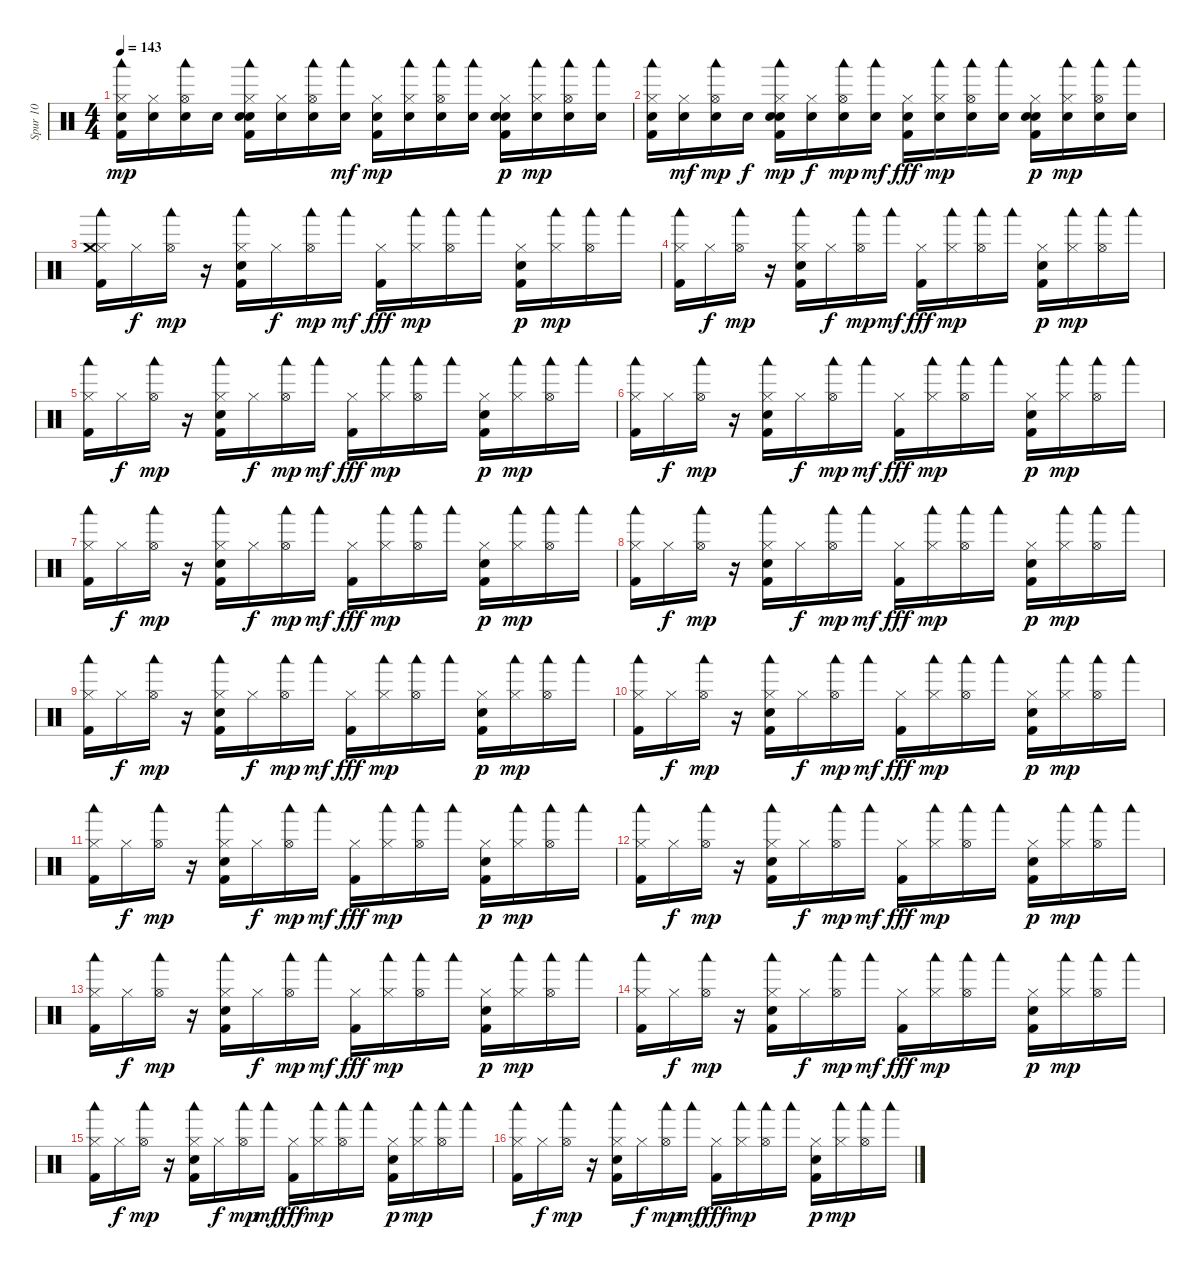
\track ("Spur 10" "Spur 10") {instrument percussion}
\staff {score}
\articulation defaults
\ts (4 4)
\tempo 143
\clef neutral
\ks c
("Kick (hit) 2" "Hi-Hat (closed)" "Snare (hit) 2" "Woodblock low (hit)").16{dy mp} ("Hi-Hat (closed)" "Snare (hit) 2").16 ("Hi-Hat (open)" "Snare (hit) 2" "Woodblock low (hit)").16 "Snare (hit) 2".16 ("Kick (hit) 2" "Hi-Hat (closed)" "Snare (hit) 2" "Electric Snare (hit)" "Woodblock low (hit)").16 ("Hi-Hat (closed)" "Snare (hit) 2").16 ("Hi-Hat (open)" "Snare (hit) 2" "Woodblock low (hit)").16 ("Snare (hit) 2" "Woodblock low (hit)").16{dy mf} ("Kick (hit) 2" "Hi-Hat (closed)" "Snare (hit) 2").16{dy mp} ("Hi-Hat (closed)" "Snare (hit) 2" "Woodblock low (hit)").16 ("Hi-Hat (open)" "Snare (hit) 2" "Woodblock low (hit)").16 ("Snare (hit) 2" "Woodblock low (hit)").16 ("Kick (hit) 2" "Hi-Hat (closed)" "Snare (hit) 2" "Electric Snare (hit)").16{dy p} ("Hi-Hat (closed)" "Snare (hit) 2" "Woodblock low (hit)").16{dy mp} ("Hi-Hat (open)" "Snare (hit) 2" "Woodblock low (hit)").16 ("Snare (hit) 2" "Woodblock low (hit)").16 |
("Snare (hit) 2" "Hi-Hat (closed)" "Kick (hit) 2" "Woodblock low (hit)").16 ("Snare (hit) 2" "Hi-Hat (closed)").16{dy mf} ("Snare (hit) 2" "Hi-Hat (open)" "Woodblock low (hit)").16{dy mp} "Snare (hit) 2".16{dy f} ("Snare (hit) 2" "Hi-Hat (closed)" "Kick (hit) 2" "Electric Snare (hit)" "Woodblock low (hit)").16{dy mp} ("Snare (hit) 2" "Hi-Hat (closed)").16{dy f} ("Snare (hit) 2" "Hi-Hat (open)" "Woodblock low (hit)").16{dy mp} ("Snare (hit) 2" "Woodblock low (hit)").16{dy mf} ("Snare (hit) 2" "Hi-Hat (closed)" "Kick (hit) 2").16{dy fff} ("Snare (hit) 2" "Hi-Hat (closed)" "Woodblock low (hit)").16{dy mp} ("Snare (hit) 2" "Hi-Hat (open)" "Woodblock low (hit)").16 ("Snare (hit) 2" "Woodblock low (hit)").16 ("Snare (hit) 2" "Hi-Hat (closed)" "Kick (hit) 2" "Electric Snare (hit)").16{dy p} ("Snare (hit) 2" "Hi-Hat (closed)" "Woodblock low (hit)").16{dy mp} ("Snare (hit) 2" "Hi-Hat (open)" "Woodblock low (hit)").16 ("Snare (hit) 2" "Woodblock low (hit)").16 |
("Hi-Hat (closed)" "Kick (hit) 2" "Crash medium (hit)" "Woodblock low (hit)").16 "Hi-Hat (closed)".16{dy f} ("Hi-Hat (open)" "Woodblock low (hit)").16{dy mp} r.16 ("Hi-Hat (closed)" "Kick (hit) 2" "Electric Snare (hit)" "Woodblock low (hit)").16 "Hi-Hat (closed)".16{dy f} ("Hi-Hat (open)" "Woodblock low (hit)").16{dy mp} "Woodblock low (hit)".16{dy mf} ("Hi-Hat (closed)" "Kick (hit) 2").16{dy fff} ("Hi-Hat (closed)" "Woodblock low (hit)").16{dy mp} ("Hi-Hat (open)" "Woodblock low (hit)").16 "Woodblock low (hit)".16 ("Hi-Hat (closed)" "Kick (hit) 2" "Electric Snare (hit)").16{dy p} ("Hi-Hat (closed)" "Woodblock low (hit)").16{dy mp} ("Hi-Hat (open)" "Woodblock low (hit)").16 "Woodblock low (hit)".16 |
("Kick (hit) 2" "Hi-Hat (closed)" "Woodblock low (hit)").16 "Hi-Hat (closed)".16{dy f} ("Hi-Hat (open)" "Woodblock low (hit)").16{dy mp} r.16 ("Kick (hit) 2" "Hi-Hat (closed)" "Electric Snare (hit)" "Woodblock low (hit)").16 "Hi-Hat (closed)".16{dy f} ("Hi-Hat (open)" "Woodblock low (hit)").16{dy mp} "Woodblock low (hit)".16{dy mf} ("Kick (hit) 2" "Hi-Hat (closed)").16{dy fff} ("Hi-Hat (closed)" "Woodblock low (hit)").16{dy mp} ("Hi-Hat (open)" "Woodblock low (hit)").16 "Woodblock low (hit)".16 ("Kick (hit) 2" "Hi-Hat (closed)" "Electric Snare (hit)").16{dy p} ("Hi-Hat (closed)" "Woodblock low (hit)").16{dy mp} ("Hi-Hat (open)" "Woodblock low (hit)").16 "Woodblock low (hit)".16 |
("Kick (hit) 2" "Hi-Hat (closed)" "Woodblock low (hit)").16 "Hi-Hat (closed)".16{dy f} ("Hi-Hat (open)" "Woodblock low (hit)").16{dy mp} r.16 ("Kick (hit) 2" "Hi-Hat (closed)" "Electric Snare (hit)" "Woodblock low (hit)").16 "Hi-Hat (closed)".16{dy f} ("Hi-Hat (open)" "Woodblock low (hit)").16{dy mp} "Woodblock low (hit)".16{dy mf} ("Kick (hit) 2" "Hi-Hat (closed)").16{dy fff} ("Hi-Hat (closed)" "Woodblock low (hit)").16{dy mp} ("Hi-Hat (open)" "Woodblock low (hit)").16 "Woodblock low (hit)".16 ("Kick (hit) 2" "Hi-Hat (closed)" "Electric Snare (hit)").16{dy p} ("Hi-Hat (closed)" "Woodblock low (hit)").16{dy mp} ("Hi-Hat (open)" "Woodblock low (hit)").16 "Woodblock low (hit)".16 |
("Hi-Hat (closed)" "Kick (hit) 2" "Woodblock low (hit)").16 "Hi-Hat (closed)".16{dy f} ("Hi-Hat (open)" "Woodblock low (hit)").16{dy mp} r.16 ("Hi-Hat (closed)" "Kick (hit) 2" "Electric Snare (hit)" "Woodblock low (hit)").16 "Hi-Hat (closed)".16{dy f} ("Hi-Hat (open)" "Woodblock low (hit)").16{dy mp} "Woodblock low (hit)".16{dy mf} ("Hi-Hat (closed)" "Kick (hit) 2").16{dy fff} ("Hi-Hat (closed)" "Woodblock low (hit)").16{dy mp} ("Hi-Hat (open)" "Woodblock low (hit)").16 "Woodblock low (hit)".16 ("Hi-Hat (closed)" "Kick (hit) 2" "Electric Snare (hit)").16{dy p} ("Hi-Hat (closed)" "Woodblock low (hit)").16{dy mp} ("Hi-Hat (open)" "Woodblock low (hit)").16 "Woodblock low (hit)".16 |
("Hi-Hat (closed)" "Kick (hit) 2" "Woodblock low (hit)").16 "Hi-Hat (closed)".16{dy f} ("Hi-Hat (open)" "Woodblock low (hit)").16{dy mp} r.16 ("Hi-Hat (closed)" "Kick (hit) 2" "Electric Snare (hit)" "Woodblock low (hit)").16 "Hi-Hat (closed)".16{dy f} ("Hi-Hat (open)" "Woodblock low (hit)").16{dy mp} "Woodblock low (hit)".16{dy mf} ("Hi-Hat (closed)" "Kick (hit) 2").16{dy fff} ("Hi-Hat (closed)" "Woodblock low (hit)").16{dy mp} ("Hi-Hat (open)" "Woodblock low (hit)").16 "Woodblock low (hit)".16 ("Hi-Hat (closed)" "Kick (hit) 2" "Electric Snare (hit)").16{dy p} ("Hi-Hat (closed)" "Woodblock low (hit)").16{dy mp} ("Hi-Hat (open)" "Woodblock low (hit)").16 "Woodblock low (hit)".16 |
("Hi-Hat (closed)" "Kick (hit) 2" "Woodblock low (hit)").16 "Hi-Hat (closed)".16{dy f} ("Hi-Hat (open)" "Woodblock low (hit)").16{dy mp} r.16 ("Hi-Hat (closed)" "Kick (hit) 2" "Electric Snare (hit)" "Woodblock low (hit)").16 "Hi-Hat (closed)".16{dy f} ("Hi-Hat (open)" "Woodblock low (hit)").16{dy mp} "Woodblock low (hit)".16{dy mf} ("Hi-Hat (closed)" "Kick (hit) 2").16{dy fff} ("Hi-Hat (closed)" "Woodblock low (hit)").16{dy mp} ("Hi-Hat (open)" "Woodblock low (hit)").16 "Woodblock low (hit)".16 ("Hi-Hat (closed)" "Kick (hit) 2" "Electric Snare (hit)").16{dy p} ("Hi-Hat (closed)" "Woodblock low (hit)").16{dy mp} ("Hi-Hat (open)" "Woodblock low (hit)").16 "Woodblock low (hit)".16 |
("Hi-Hat (closed)" "Kick (hit) 2" "Woodblock low (hit)").16 "Hi-Hat (closed)".16{dy f} ("Hi-Hat (open)" "Woodblock low (hit)").16{dy mp} r.16 ("Hi-Hat (closed)" "Kick (hit) 2" "Electric Snare (hit)" "Woodblock low (hit)").16 "Hi-Hat (closed)".16{dy f} ("Hi-Hat (open)" "Woodblock low (hit)").16{dy mp} "Woodblock low (hit)".16{dy mf} ("Hi-Hat (closed)" "Kick (hit) 2").16{dy fff} ("Hi-Hat (closed)" "Woodblock low (hit)").16{dy mp} ("Hi-Hat (open)" "Woodblock low (hit)").16 "Woodblock low (hit)".16 ("Hi-Hat (closed)" "Kick (hit) 2" "Electric Snare (hit)").16{dy p} ("Hi-Hat (closed)" "Woodblock low (hit)").16{dy mp} ("Hi-Hat (open)" "Woodblock low (hit)").16 "Woodblock low (hit)".16 |
("Kick (hit) 2" "Hi-Hat (closed)" "Woodblock low (hit)").16 "Hi-Hat (closed)".16{dy f} ("Hi-Hat (open)" "Woodblock low (hit)").16{dy mp} r.16 ("Kick (hit) 2" "Hi-Hat (closed)" "Electric Snare (hit)" "Woodblock low (hit)").16 "Hi-Hat (closed)".16{dy f} ("Hi-Hat (open)" "Woodblock low (hit)").16{dy mp} "Woodblock low (hit)".16{dy mf} ("Kick (hit) 2" "Hi-Hat (closed)").16{dy fff} ("Hi-Hat (closed)" "Woodblock low (hit)").16{dy mp} ("Hi-Hat (open)" "Woodblock low (hit)").16 "Woodblock low (hit)".16 ("Kick (hit) 2" "Hi-Hat (closed)" "Electric Snare (hit)").16{dy p} ("Hi-Hat (closed)" "Woodblock low (hit)").16{dy mp} ("Hi-Hat (open)" "Woodblock low (hit)").16 "Woodblock low (hit)".16 |
("Kick (hit) 2" "Hi-Hat (closed)" "Woodblock low (hit)").16 "Hi-Hat (closed)".16{dy f} ("Hi-Hat (open)" "Woodblock low (hit)").16{dy mp} r.16 ("Kick (hit) 2" "Hi-Hat (closed)" "Electric Snare (hit)" "Woodblock low (hit)").16 "Hi-Hat (closed)".16{dy f} ("Hi-Hat (open)" "Woodblock low (hit)").16{dy mp} "Woodblock low (hit)".16{dy mf} ("Kick (hit) 2" "Hi-Hat (closed)").16{dy fff} ("Hi-Hat (closed)" "Woodblock low (hit)").16{dy mp} ("Hi-Hat (open)" "Woodblock low (hit)").16 "Woodblock low (hit)".16 ("Kick (hit) 2" "Hi-Hat (closed)" "Electric Snare (hit)").16{dy p} ("Hi-Hat (closed)" "Woodblock low (hit)").16{dy mp} ("Hi-Hat (open)" "Woodblock low (hit)").16 "Woodblock low (hit)".16 |
("Kick (hit) 2" "Hi-Hat (closed)" "Woodblock low (hit)").16 "Hi-Hat (closed)".16{dy f} ("Hi-Hat (open)" "Woodblock low (hit)").16{dy mp} r.16 ("Kick (hit) 2" "Hi-Hat (closed)" "Electric Snare (hit)" "Woodblock low (hit)").16 "Hi-Hat (closed)".16{dy f} ("Hi-Hat (open)" "Woodblock low (hit)").16{dy mp} "Woodblock low (hit)".16{dy mf} ("Kick (hit) 2" "Hi-Hat (closed)").16{dy fff} ("Hi-Hat (closed)" "Woodblock low (hit)").16{dy mp} ("Hi-Hat (open)" "Woodblock low (hit)").16 "Woodblock low (hit)".16 ("Kick (hit) 2" "Hi-Hat (closed)" "Electric Snare (hit)").16{dy p} ("Hi-Hat (closed)" "Woodblock low (hit)").16{dy mp} ("Hi-Hat (open)" "Woodblock low (hit)").16 "Woodblock low (hit)".16 |
("Kick (hit) 2" "Hi-Hat (closed)" "Woodblock low (hit)").16 "Hi-Hat (closed)".16{dy f} ("Hi-Hat (open)" "Woodblock low (hit)").16{dy mp} r.16 ("Kick (hit) 2" "Hi-Hat (closed)" "Electric Snare (hit)" "Woodblock low (hit)").16 "Hi-Hat (closed)".16{dy f} ("Hi-Hat (open)" "Woodblock low (hit)").16{dy mp} "Woodblock low (hit)".16{dy mf} ("Kick (hit) 2" "Hi-Hat (closed)").16{dy fff} ("Hi-Hat (closed)" "Woodblock low (hit)").16{dy mp} ("Hi-Hat (open)" "Woodblock low (hit)").16 "Woodblock low (hit)".16 ("Kick (hit) 2" "Hi-Hat (closed)" "Electric Snare (hit)").16{dy p} ("Hi-Hat (closed)" "Woodblock low (hit)").16{dy mp} ("Hi-Hat (open)" "Woodblock low (hit)").16 "Woodblock low (hit)".16 |
("Hi-Hat (closed)" "Kick (hit) 2" "Woodblock low (hit)").16 "Hi-Hat (closed)".16{dy f} ("Hi-Hat (open)" "Woodblock low (hit)").16{dy mp} r.16 ("Hi-Hat (closed)" "Kick (hit) 2" "Electric Snare (hit)" "Woodblock low (hit)").16 "Hi-Hat (closed)".16{dy f} ("Hi-Hat (open)" "Woodblock low (hit)").16{dy mp} "Woodblock low (hit)".16{dy mf} ("Hi-Hat (closed)" "Kick (hit) 2").16{dy fff} ("Hi-Hat (closed)" "Woodblock low (hit)").16{dy mp} ("Hi-Hat (open)" "Woodblock low (hit)").16 "Woodblock low (hit)".16 ("Hi-Hat (closed)" "Kick (hit) 2" "Electric Snare (hit)").16{dy p} ("Hi-Hat (closed)" "Woodblock low (hit)").16{dy mp} ("Hi-Hat (open)" "Woodblock low (hit)").16 "Woodblock low (hit)".16 |
("Hi-Hat (closed)" "Kick (hit) 2" "Woodblock low (hit)").16 "Hi-Hat (closed)".16{dy f} ("Hi-Hat (open)" "Woodblock low (hit)").16{dy mp} r.16 ("Hi-Hat (closed)" "Kick (hit) 2" "Electric Snare (hit)" "Woodblock low (hit)").16 "Hi-Hat (closed)".16{dy f} ("Hi-Hat (open)" "Woodblock low (hit)").16{dy mp} "Woodblock low (hit)".16{dy mf} ("Hi-Hat (closed)" "Kick (hit) 2").16{dy fff} ("Hi-Hat (closed)" "Woodblock low (hit)").16{dy mp} ("Hi-Hat (open)" "Woodblock low (hit)").16 "Woodblock low (hit)".16 ("Hi-Hat (closed)" "Kick (hit) 2" "Electric Snare (hit)").16{dy p} ("Hi-Hat (closed)" "Woodblock low (hit)").16{dy mp} ("Hi-Hat (open)" "Woodblock low (hit)").16 "Woodblock low (hit)".16 |
("Hi-Hat (closed)" "Kick (hit) 2" "Woodblock low (hit)").16 "Hi-Hat (closed)".16{dy f} ("Hi-Hat (open)" "Woodblock low (hit)").16{dy mp} r.16 ("Hi-Hat (closed)" "Kick (hit) 2" "Electric Snare (hit)" "Woodblock low (hit)").16 "Hi-Hat (closed)".16{dy f} ("Hi-Hat (open)" "Woodblock low (hit)").16{dy mp} "Woodblock low (hit)".16{dy mf} ("Hi-Hat (closed)" "Kick (hit) 2").16{dy fff} ("Hi-Hat (closed)" "Woodblock low (hit)").16{dy mp} ("Hi-Hat (open)" "Woodblock low (hit)").16 "Woodblock low (hit)".16 ("Hi-Hat (closed)" "Kick (hit) 2" "Electric Snare (hit)").16{dy p} ("Hi-Hat (closed)" "Woodblock low (hit)").16{dy mp} ("Hi-Hat (open)" "Woodblock low (hit)").16 "Woodblock low (hit)".16
